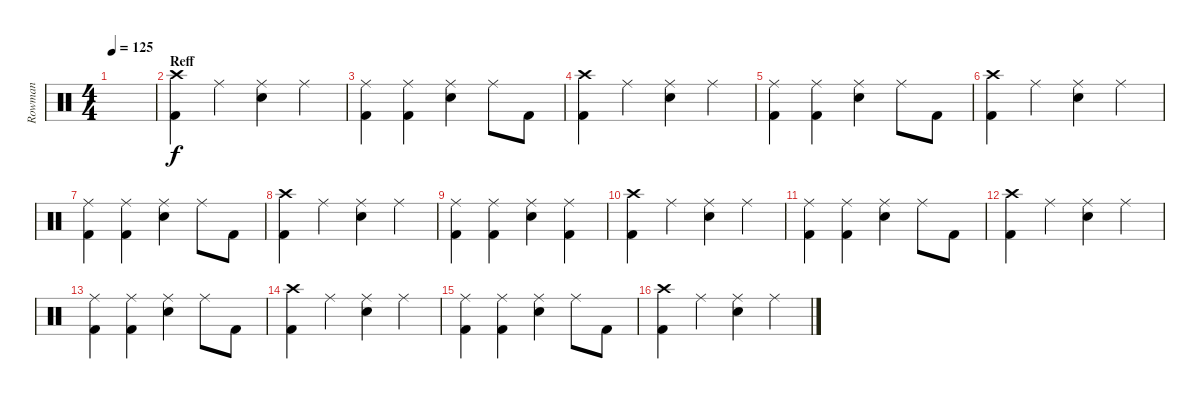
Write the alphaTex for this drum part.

\track ("Rowman" "Rowman") {instrument percussion}
\staff {score}
\articulation defaults
\ts (4 4)
\tempo 125
\clef neutral
\ks c
|
\section ("" "Reff")
("Kick (hit) 2" "Crash high (hit)").4 "Ride (middle)".4 ("Electric Snare (hit)" "Ride (middle)").4 "Ride (middle)".4 |
("Kick (hit) 2" "Ride (middle)").4 ("Kick (hit) 2" "Ride (middle)").4 ("Electric Snare (hit)" "Ride (middle)").4 "Ride (middle)".8 "Kick (hit) 2".8 |
("Kick (hit) 2" "Crash high (hit)").4 "Ride (middle)".4 ("Electric Snare (hit)" "Ride (middle)").4 "Ride (middle)".4 |
("Kick (hit) 2" "Ride (middle)").4 ("Kick (hit) 2" "Ride (middle)").4 ("Electric Snare (hit)" "Ride (middle)").4 "Ride (middle)".8 "Kick (hit) 2".8 |
("Kick (hit) 2" "Crash high (hit)").4 "Ride (middle)".4 ("Electric Snare (hit)" "Ride (middle)").4 "Ride (middle)".4 |
("Kick (hit) 2" "Ride (middle)").4 ("Kick (hit) 2" "Ride (middle)").4 ("Electric Snare (hit)" "Ride (middle)").4 "Ride (middle)".8 "Kick (hit) 2".8 |
("Kick (hit) 2" "Crash high (hit)").4 "Ride (middle)".4 ("Electric Snare (hit)" "Ride (middle)").4 "Ride (middle)".4 |
("Kick (hit) 2" "Ride (middle)").4 ("Kick (hit) 2" "Ride (middle)").4 ("Electric Snare (hit)" "Ride (middle)").4 ("Kick (hit) 2" "Ride (middle)").4 |
("Kick (hit) 2" "Crash high (hit)").4 "Ride (middle)".4 ("Electric Snare (hit)" "Ride (middle)").4 "Ride (middle)".4 |
("Kick (hit) 2" "Ride (middle)").4 ("Kick (hit) 2" "Ride (middle)").4 ("Electric Snare (hit)" "Ride (middle)").4 "Ride (middle)".8 "Kick (hit) 2".8 |
("Kick (hit) 2" "Crash high (hit)").4 "Ride (middle)".4 ("Electric Snare (hit)" "Ride (middle)").4 "Ride (middle)".4 |
("Kick (hit) 2" "Ride (middle)").4 ("Kick (hit) 2" "Ride (middle)").4 ("Electric Snare (hit)" "Ride (middle)").4 "Ride (middle)".8 "Kick (hit) 2".8 |
("Kick (hit) 2" "Crash high (hit)").4 "Ride (middle)".4 ("Electric Snare (hit)" "Ride (middle)").4 "Ride (middle)".4 |
("Kick (hit) 2" "Ride (middle)").4 ("Kick (hit) 2" "Ride (middle)").4 ("Electric Snare (hit)" "Ride (middle)").4 "Ride (middle)".8 "Kick (hit) 2".8 |
("Kick (hit) 2" "Crash high (hit)").4 "Ride (middle)".4 ("Electric Snare (hit)" "Ride (middle)").4 "Ride (middle)".4
